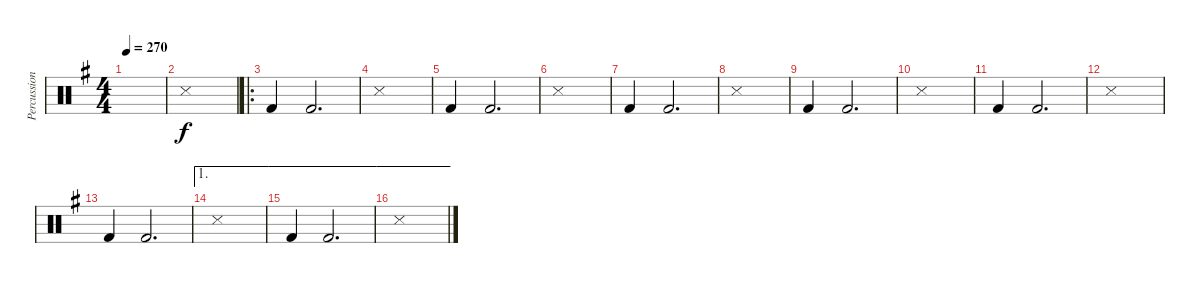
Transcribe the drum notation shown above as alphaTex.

\track ("Percussion" "Percussion") {instrument percussion}
\staff {score}
\articulation defaults
\ts (4 4)
\tempo 270
\clef neutral
\ks g
|
"Snare (side stick) 3".1 |
\ro
\section ("" "")
"Kick (hit) 2".4 "Kick (hit) 2".2{d} |
"Snare (side stick) 3".1 |
"Kick (hit) 2".4 "Kick (hit) 2".2{d} |
"Snare (side stick) 3".1 |
"Kick (hit) 2".4 "Kick (hit) 2".2{d} |
"Snare (side stick) 3".1 |
"Kick (hit) 2".4 "Kick (hit) 2".2{d} |
"Snare (side stick) 3".1 |
"Kick (hit) 2".4 "Kick (hit) 2".2{d} |
"Snare (side stick) 3".1 |
"Kick (hit) 2".4 "Kick (hit) 2".2{d} |
\ae 1 "Snare (side stick) 3".1
|
\ae 1 "Kick (hit) 2".4 "Kick (hit) 2".2{d}
|
\ae 1 "Snare (side stick) 3".1
